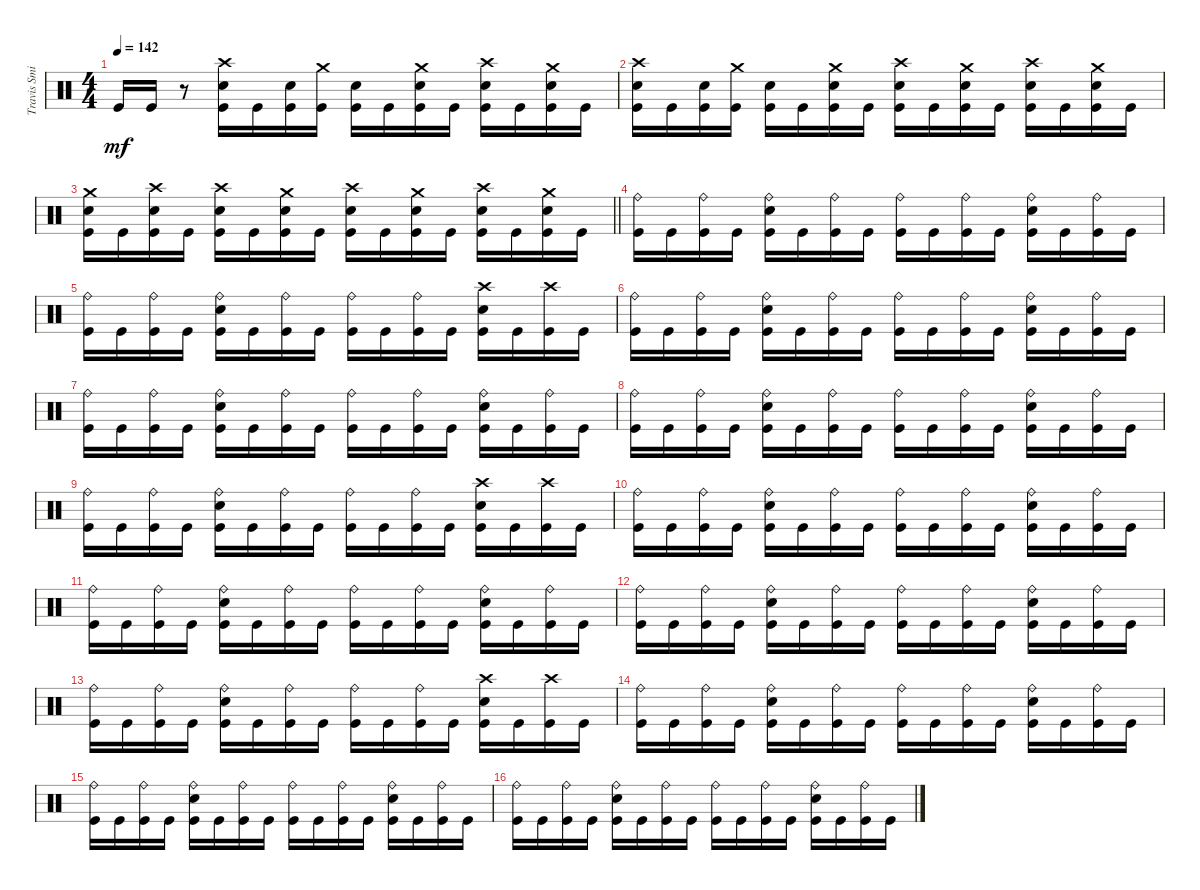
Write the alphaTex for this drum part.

\track ("Travis Smith" "Travis Smi") {instrument percussion}
\staff {score}
\articulation defaults
\ts (4 4)
\tempo 142
\clef neutral
\ks c "Kick (hit)".16{dy mf} "Kick (hit)".16
r.8 ("Crash high (hit)" "Snare (hit) 2" "Kick (hit)").16 "Kick (hit)".16 ("Snare (hit) 2" "Kick (hit)").16 ("Crash medium (hit)" "Kick (hit)").16 ("Snare (hit) 2" "Kick (hit)").16 "Kick (hit)".16 ("Crash medium (hit)" "Snare (hit) 2" "Kick (hit)").16 "Kick (hit)".16 ("Crash high (hit)" "Snare (hit) 2" "Kick (hit)").16 "Kick (hit)".16 ("Crash medium (hit)" "Snare (hit) 2" "Kick (hit)").16 "Kick (hit)".16 |
("Crash high (hit)" "Snare (hit) 2" "Kick (hit)").16 "Kick (hit)".16 ("Snare (hit) 2" "Kick (hit)").16 ("Crash medium (hit)" "Kick (hit)").16 ("Snare (hit) 2" "Kick (hit)").16 "Kick (hit)".16 ("Crash medium (hit)" "Snare (hit) 2" "Kick (hit)").16 "Kick (hit)".16 ("Crash high (hit)" "Snare (hit) 2" "Kick (hit)").16 "Kick (hit)".16 ("Crash medium (hit)" "Snare (hit) 2" "Kick (hit)").16 "Kick (hit)".16 ("Crash high (hit)" "Snare (hit) 2" "Kick (hit)").16 "Kick (hit)".16 ("Crash medium (hit)" "Snare (hit) 2" "Kick (hit)").16 "Kick (hit)".16 |
\barLineRight lightlight
("Crash medium (hit)" "Snare (hit) 2" "Kick (hit)").16 "Kick (hit)".16 ("Crash high (hit)" "Snare (hit) 2" "Kick (hit)").16 "Kick (hit)".16 ("Crash high (hit)" "Snare (hit) 2" "Kick (hit)").16 "Kick (hit)".16 ("Crash medium (hit)" "Snare (hit) 2" "Kick (hit)").16 "Kick (hit)".16 ("Crash high (hit)" "Snare (hit) 2" "Kick (hit)").16 "Kick (hit)".16 ("Crash medium (hit)" "Snare (hit) 2" "Kick (hit)").16 "Kick (hit)".16 ("Crash high (hit)" "Snare (hit) 2" "Kick (hit)").16 "Kick (hit)".16 ("Crash medium (hit)" "Snare (hit) 2" "Kick (hit)").16 "Kick (hit)".16 |
\section ("" "")
("Ride (bell)" "Kick (hit)").16 "Kick (hit)".16 ("Ride (bell)" "Kick (hit)").16 "Kick (hit)".16 ("Ride (bell)" "Snare (hit) 2" "Kick (hit)").16 "Kick (hit)".16 ("Ride (bell)" "Kick (hit)").16 "Kick (hit)".16 ("Ride (bell)" "Kick (hit)").16 "Kick (hit)".16 ("Ride (bell)" "Kick (hit)").16 "Kick (hit)".16 ("Ride (bell)" "Snare (hit) 2" "Kick (hit)").16 "Kick (hit)".16 ("Ride (bell)" "Kick (hit)").16 "Kick (hit)".16 |
("Ride (bell)" "Kick (hit)").16 "Kick (hit)".16 ("Ride (bell)" "Kick (hit)").16 "Kick (hit)".16 ("Ride (bell)" "Snare (hit) 2" "Kick (hit)").16 "Kick (hit)".16 ("Ride (bell)" "Kick (hit)").16 "Kick (hit)".16 ("Ride (bell)" "Kick (hit)").16 "Kick (hit)".16 ("Ride (bell)" "Kick (hit)").16 "Kick (hit)".16 ("Crash high (hit)" "Snare (hit) 2" "Kick (hit)").16 "Kick (hit)".16 ("Crash high (hit)" "Kick (hit)").16 "Kick (hit)".16 |
("Ride (bell)" "Kick (hit)").16 "Kick (hit)".16 ("Ride (bell)" "Kick (hit)").16 "Kick (hit)".16 ("Ride (bell)" "Snare (hit) 2" "Kick (hit)").16 "Kick (hit)".16 ("Ride (bell)" "Kick (hit)").16 "Kick (hit)".16 ("Ride (bell)" "Kick (hit)").16 "Kick (hit)".16 ("Ride (bell)" "Kick (hit)").16 "Kick (hit)".16 ("Ride (bell)" "Snare (hit) 2" "Kick (hit)").16 "Kick (hit)".16 ("Ride (bell)" "Kick (hit)").16 "Kick (hit)".16 |
("Ride (bell)" "Kick (hit)").16 "Kick (hit)".16 ("Ride (bell)" "Kick (hit)").16 "Kick (hit)".16 ("Ride (bell)" "Snare (hit) 2" "Kick (hit)").16 "Kick (hit)".16 ("Ride (bell)" "Kick (hit)").16 "Kick (hit)".16 ("Ride (bell)" "Kick (hit)").16 "Kick (hit)".16 ("Ride (bell)" "Kick (hit)").16 "Kick (hit)".16 ("Ride (bell)" "Snare (hit) 2" "Kick (hit)").16 "Kick (hit)".16 ("Ride (bell)" "Kick (hit)").16 "Kick (hit)".16 |
("Ride (bell)" "Kick (hit)").16 "Kick (hit)".16 ("Ride (bell)" "Kick (hit)").16 "Kick (hit)".16 ("Ride (bell)" "Snare (hit) 2" "Kick (hit)").16 "Kick (hit)".16 ("Ride (bell)" "Kick (hit)").16 "Kick (hit)".16 ("Ride (bell)" "Kick (hit)").16 "Kick (hit)".16 ("Ride (bell)" "Kick (hit)").16 "Kick (hit)".16 ("Ride (bell)" "Snare (hit) 2" "Kick (hit)").16 "Kick (hit)".16 ("Ride (bell)" "Kick (hit)").16 "Kick (hit)".16 |
("Ride (bell)" "Kick (hit)").16 "Kick (hit)".16 ("Ride (bell)" "Kick (hit)").16 "Kick (hit)".16 ("Ride (bell)" "Snare (hit) 2" "Kick (hit)").16 "Kick (hit)".16 ("Ride (bell)" "Kick (hit)").16 "Kick (hit)".16 ("Ride (bell)" "Kick (hit)").16 "Kick (hit)".16 ("Ride (bell)" "Kick (hit)").16 "Kick (hit)".16 ("Crash high (hit)" "Snare (hit) 2" "Kick (hit)").16 "Kick (hit)".16 ("Crash high (hit)" "Kick (hit)").16 "Kick (hit)".16 |
("Ride (bell)" "Kick (hit)").16 "Kick (hit)".16 ("Ride (bell)" "Kick (hit)").16 "Kick (hit)".16 ("Ride (bell)" "Snare (hit) 2" "Kick (hit)").16 "Kick (hit)".16 ("Ride (bell)" "Kick (hit)").16 "Kick (hit)".16 ("Ride (bell)" "Kick (hit)").16 "Kick (hit)".16 ("Ride (bell)" "Kick (hit)").16 "Kick (hit)".16 ("Ride (bell)" "Snare (hit) 2" "Kick (hit)").16 "Kick (hit)".16 ("Ride (bell)" "Kick (hit)").16 "Kick (hit)".16 |
("Ride (bell)" "Kick (hit)").16 "Kick (hit)".16 ("Ride (bell)" "Kick (hit)").16 "Kick (hit)".16 ("Ride (bell)" "Snare (hit) 2" "Kick (hit)").16 "Kick (hit)".16 ("Ride (bell)" "Kick (hit)").16 "Kick (hit)".16 ("Ride (bell)" "Kick (hit)").16 "Kick (hit)".16 ("Ride (bell)" "Kick (hit)").16 "Kick (hit)".16 ("Ride (bell)" "Snare (hit) 2" "Kick (hit)").16 "Kick (hit)".16 ("Ride (bell)" "Kick (hit)").16 "Kick (hit)".16 |
("Ride (bell)" "Kick (hit)").16 "Kick (hit)".16 ("Ride (bell)" "Kick (hit)").16 "Kick (hit)".16 ("Ride (bell)" "Snare (hit) 2" "Kick (hit)").16 "Kick (hit)".16 ("Ride (bell)" "Kick (hit)").16 "Kick (hit)".16 ("Ride (bell)" "Kick (hit)").16 "Kick (hit)".16 ("Ride (bell)" "Kick (hit)").16 "Kick (hit)".16 ("Ride (bell)" "Snare (hit) 2" "Kick (hit)").16 "Kick (hit)".16 ("Ride (bell)" "Kick (hit)").16 "Kick (hit)".16 |
("Ride (bell)" "Kick (hit)").16 "Kick (hit)".16 ("Ride (bell)" "Kick (hit)").16 "Kick (hit)".16 ("Ride (bell)" "Snare (hit) 2" "Kick (hit)").16 "Kick (hit)".16 ("Ride (bell)" "Kick (hit)").16 "Kick (hit)".16 ("Ride (bell)" "Kick (hit)").16 "Kick (hit)".16 ("Ride (bell)" "Kick (hit)").16 "Kick (hit)".16 ("Crash high (hit)" "Snare (hit) 2" "Kick (hit)").16 "Kick (hit)".16 ("Crash high (hit)" "Kick (hit)").16 "Kick (hit)".16 |
("Ride (bell)" "Kick (hit)").16 "Kick (hit)".16 ("Ride (bell)" "Kick (hit)").16 "Kick (hit)".16 ("Ride (bell)" "Snare (hit) 2" "Kick (hit)").16 "Kick (hit)".16 ("Ride (bell)" "Kick (hit)").16 "Kick (hit)".16 ("Ride (bell)" "Kick (hit)").16 "Kick (hit)".16 ("Ride (bell)" "Kick (hit)").16 "Kick (hit)".16 ("Ride (bell)" "Snare (hit) 2" "Kick (hit)").16 "Kick (hit)".16 ("Ride (bell)" "Kick (hit)").16 "Kick (hit)".16 |
("Ride (bell)" "Kick (hit)").16 "Kick (hit)".16 ("Ride (bell)" "Kick (hit)").16 "Kick (hit)".16 ("Ride (bell)" "Snare (hit) 2" "Kick (hit)").16 "Kick (hit)".16 ("Ride (bell)" "Kick (hit)").16 "Kick (hit)".16 ("Ride (bell)" "Kick (hit)").16 "Kick (hit)".16 ("Ride (bell)" "Kick (hit)").16 "Kick (hit)".16 ("Ride (bell)" "Snare (hit) 2" "Kick (hit)").16 "Kick (hit)".16 ("Ride (bell)" "Kick (hit)").16 "Kick (hit)".16 |
("Ride (bell)" "Kick (hit)").16 "Kick (hit)".16 ("Ride (bell)" "Kick (hit)").16 "Kick (hit)".16 ("Ride (bell)" "Snare (hit) 2" "Kick (hit)").16 "Kick (hit)".16 ("Ride (bell)" "Kick (hit)").16 "Kick (hit)".16 ("Ride (bell)" "Kick (hit)").16 "Kick (hit)".16 ("Ride (bell)" "Kick (hit)").16 "Kick (hit)".16 ("Ride (bell)" "Snare (hit) 2" "Kick (hit)").16 "Kick (hit)".16 ("Ride (bell)" "Kick (hit)").16 "Kick (hit)".16
